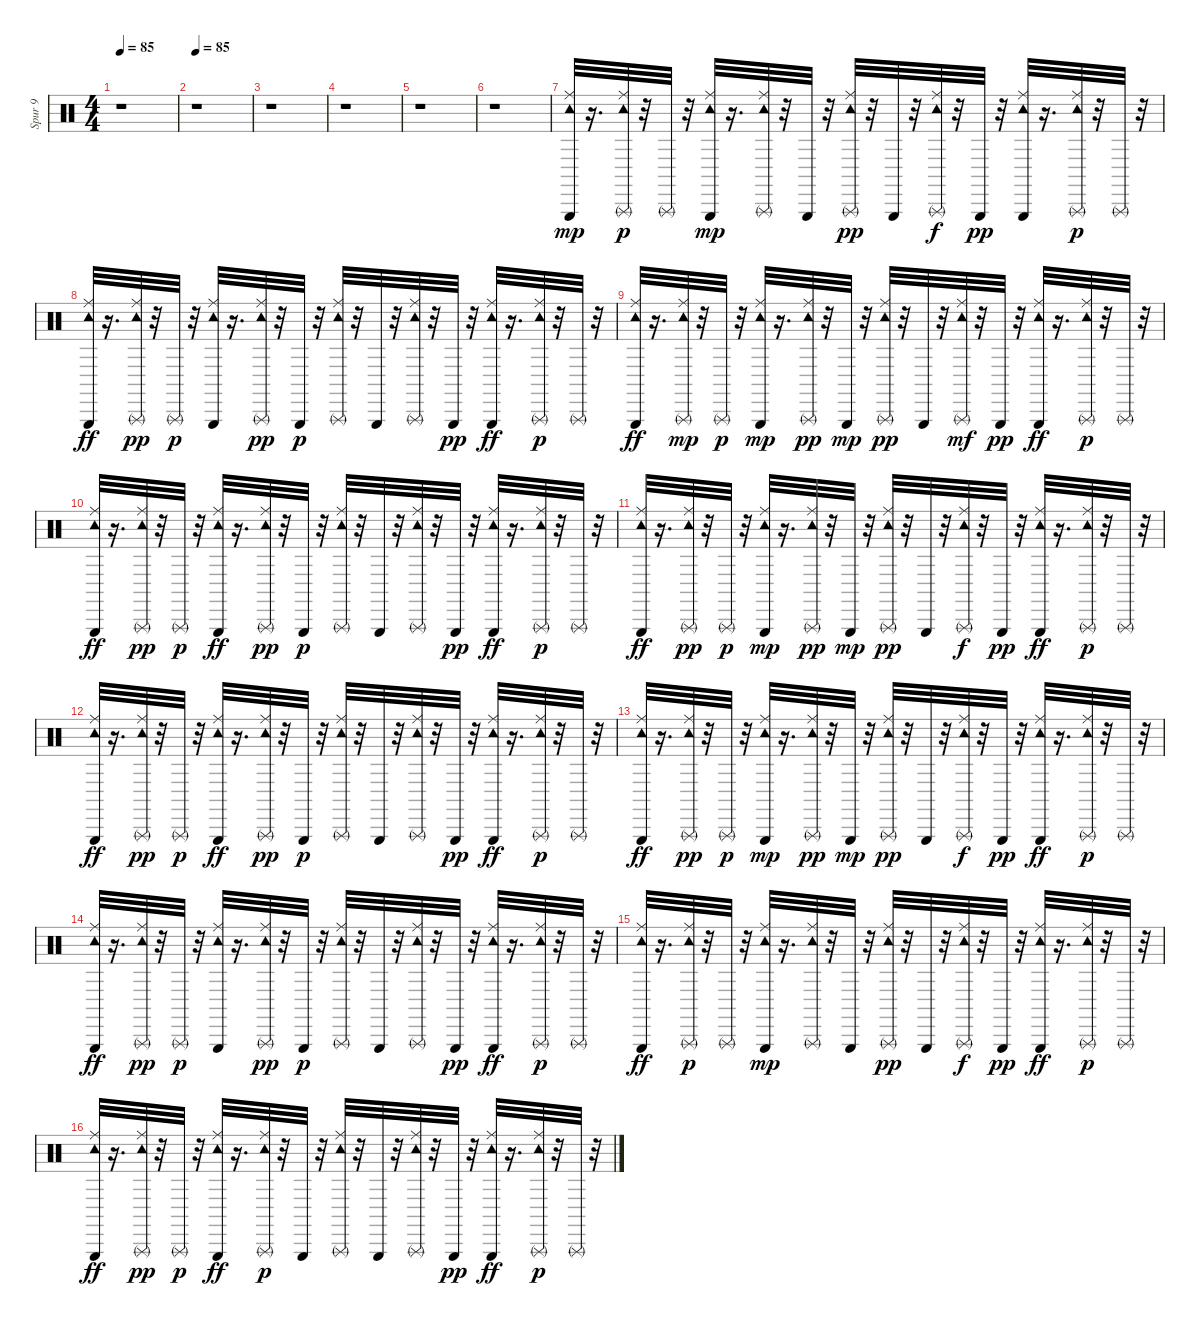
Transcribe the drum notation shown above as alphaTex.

\track ("Spur 9" "Spur 9") {instrument percussion}
\staff {score}
\articulation defaults
\ts (4 4)
\tempo 85
\clef neutral
\ks c
r.1{dy mp} |
\tempo 85
r.1 |
r.1 |
r.1 |
r.1 |
r.1 |
("Tambourine (hit)" "Triangle (hit)" "Ride (middle)").32 r.16{d} ("Ride (middle)" "Tambourine (hit)" "Triangle (rnute)").32{dy p} r.32 "Triangle (rnute)".32 r.32 ("Tambourine (hit)" "Triangle (hit)" "Ride (middle)").32{dy mp} r.16{d} ("Triangle (rnute)" "Ride (middle)" "Tambourine (hit)").32 r.32 "Triangle (hit)".32 r.32 ("Triangle (rnute)" "Ride (middle)" "Tambourine (hit)").32{dy pp} r.32 "Triangle (hit)".32 r.32 ("Ride (middle)" "Tambourine (hit)" "Triangle (rnute)").32{dy f} r.32 "Triangle (hit)".32{dy pp} r.32 ("Tambourine (hit)" "Ride (middle)" "Triangle (hit)").32 r.16{d} ("Tambourine (hit)" "Triangle (rnute)" "Ride (middle)").32{dy p} r.32 "Triangle (rnute)".32 r.32 |
("Ride (middle)" "Triangle (hit)" "Tambourine (hit)").32{dy ff} r.16{d} ("Triangle (rnute)" "Tambourine (hit)" "Ride (middle)").32{dy pp} r.32 "Triangle (rnute)".32{dy p} r.32 ("Ride (middle)" "Tambourine (hit)" "Triangle (hit)").32 r.16{d} ("Triangle (rnute)" "Tambourine (hit)" "Ride (middle)").32{dy pp} r.32 "Triangle (hit)".32{dy p} r.32 ("Triangle (rnute)" "Ride (middle)" "Tambourine (hit)").32 r.32 "Triangle (hit)".32 r.32 ("Ride (middle)" "Tambourine (hit)" "Triangle (rnute)").32 r.32 "Triangle (hit)".32{dy pp} r.32 ("Ride (middle)" "Triangle (hit)" "Tambourine (hit)").32{dy ff} r.16{d} ("Tambourine (hit)" "Triangle (rnute)" "Ride (middle)").32{dy p} r.32 "Triangle (rnute)".32 r.32 |
("Triangle (hit)" "Tambourine (hit)" "Ride (middle)").32{dy ff} r.16{d} ("Ride (middle)" "Triangle (rnute)" "Tambourine (hit)").32{dy mp} r.32 "Triangle (rnute)".32{dy p} r.32 ("Tambourine (hit)" "Triangle (hit)" "Ride (middle)").32{dy mp} r.16{d} ("Ride (middle)" "Tambourine (hit)" "Triangle (rnute)").32{dy pp} r.32 "Triangle (hit)".32{dy mp} r.32 ("Ride (middle)" "Tambourine (hit)" "Triangle (rnute)").32{dy pp} r.32 "Triangle (hit)".32 r.32 ("Triangle (rnute)" "Ride (middle)" "Tambourine (hit)").32{dy mf} r.32 "Triangle (hit)".32{dy pp} r.32 ("Triangle (hit)" "Ride (middle)" "Tambourine (hit)").32{dy ff} r.16{d} ("Tambourine (hit)" "Triangle (rnute)" "Ride (middle)").32{dy p} r.32 "Triangle (rnute)".32 r.32 |
("Ride (middle)" "Triangle (hit)" "Tambourine (hit)").32{dy ff} r.16{d} ("Triangle (rnute)" "Tambourine (hit)" "Ride (middle)").32{dy pp} r.32 "Triangle (rnute)".32{dy p} r.32 ("Triangle (hit)" "Tambourine (hit)" "Ride (middle)").32{dy ff} r.16{d} ("Triangle (rnute)" "Tambourine (hit)" "Ride (middle)").32{dy pp} r.32 "Triangle (hit)".32{dy p} r.32 ("Triangle (rnute)" "Ride (middle)" "Tambourine (hit)").32 r.32 "Triangle (hit)".32 r.32 ("Ride (middle)" "Tambourine (hit)" "Triangle (rnute)").32 r.32 "Triangle (hit)".32{dy pp} r.32 ("Ride (middle)" "Triangle (hit)" "Tambourine (hit)").32{dy ff} r.16{d} ("Tambourine (hit)" "Triangle (rnute)" "Ride (middle)").32{dy p} r.32 "Triangle (rnute)".32 r.32 |
("Ride (middle)" "Triangle (hit)" "Tambourine (hit)").32{dy ff} r.16{d} ("Triangle (rnute)" "Tambourine (hit)" "Ride (middle)").32{dy pp} r.32 "Triangle (rnute)".32{dy p} r.32 ("Tambourine (hit)" "Ride (middle)" "Triangle (hit)").32{dy mp} r.16{d} ("Triangle (rnute)" "Tambourine (hit)" "Ride (middle)").32{dy pp} r.32 "Triangle (hit)".32{dy mp} r.32 ("Triangle (rnute)" "Ride (middle)" "Tambourine (hit)").32{dy pp} r.32 "Triangle (hit)".32 r.32 ("Tambourine (hit)" "Ride (middle)" "Triangle (rnute)").32{dy f} r.32 "Triangle (hit)".32{dy pp} r.32 ("Ride (middle)" "Triangle (hit)" "Tambourine (hit)").32{dy ff} r.16{d} ("Tambourine (hit)" "Triangle (rnute)" "Ride (middle)").32{dy p} r.32 "Triangle (rnute)".32 r.32 |
("Ride (middle)" "Triangle (hit)" "Tambourine (hit)").32{dy ff} r.16{d} ("Tambourine (hit)" "Triangle (rnute)" "Ride (middle)").32{dy pp} r.32 "Triangle (rnute)".32{dy p} r.32 ("Triangle (hit)" "Tambourine (hit)" "Ride (middle)").32{dy ff} r.16{d} ("Triangle (rnute)" "Tambourine (hit)" "Ride (middle)").32{dy pp} r.32 "Triangle (hit)".32{dy p} r.32 ("Triangle (rnute)" "Ride (middle)" "Tambourine (hit)").32 r.32 "Triangle (hit)".32 r.32 ("Ride (middle)" "Tambourine (hit)" "Triangle (rnute)").32 r.32 "Triangle (hit)".32{dy pp} r.32 ("Triangle (hit)" "Ride (middle)" "Tambourine (hit)").32{dy ff} r.16{d} ("Tambourine (hit)" "Triangle (rnute)" "Ride (middle)").32{dy p} r.32 "Triangle (rnute)".32 r.32 |
("Ride (middle)" "Triangle (hit)" "Tambourine (hit)").32{dy ff} r.16{d} ("Triangle (rnute)" "Tambourine (hit)" "Ride (middle)").32{dy pp} r.32 "Triangle (rnute)".32{dy p} r.32 ("Tambourine (hit)" "Ride (middle)" "Triangle (hit)").32{dy mp} r.16{d} ("Triangle (rnute)" "Tambourine (hit)" "Ride (middle)").32{dy pp} r.32 "Triangle (hit)".32{dy mp} r.32 ("Triangle (rnute)" "Ride (middle)" "Tambourine (hit)").32{dy pp} r.32 "Triangle (hit)".32 r.32 ("Tambourine (hit)" "Ride (middle)" "Triangle (rnute)").32{dy f} r.32 "Triangle (hit)".32{dy pp} r.32 ("Ride (middle)" "Triangle (hit)" "Tambourine (hit)").32{dy ff} r.16{d} ("Tambourine (hit)" "Triangle (rnute)" "Ride (middle)").32{dy p} r.32 "Triangle (rnute)".32 r.32 |
("Ride (middle)" "Triangle (hit)" "Tambourine (hit)").32{dy ff} r.16{d} ("Triangle (rnute)" "Tambourine (hit)" "Ride (middle)").32{dy pp} r.32 "Triangle (rnute)".32{dy p} r.32 ("Tambourine (hit)" "Ride (middle)" "Triangle (hit)").32 r.16{d} ("Triangle (rnute)" "Tambourine (hit)" "Ride (middle)").32{dy pp} r.32 "Triangle (hit)".32{dy p} r.32 ("Triangle (rnute)" "Ride (middle)" "Tambourine (hit)").32 r.32 "Triangle (hit)".32 r.32 ("Ride (middle)" "Tambourine (hit)" "Triangle (rnute)").32 r.32 "Triangle (hit)".32{dy pp} r.32 ("Ride (middle)" "Triangle (hit)" "Tambourine (hit)").32{dy ff} r.16{d} ("Tambourine (hit)" "Triangle (rnute)" "Ride (middle)").32{dy p} r.32 "Triangle (rnute)".32 r.32 |
("Ride (middle)" "Triangle (hit)" "Tambourine (hit)").32{dy ff} r.16{d} ("Tambourine (hit)" "Ride (middle)" "Triangle (rnute)").32{dy p} r.32 "Triangle (rnute)".32 r.32 ("Tambourine (hit)" "Triangle (hit)" "Ride (middle)").32{dy mp} r.16{d} ("Triangle (rnute)" "Ride (middle)" "Tambourine (hit)").32 r.32 "Triangle (hit)".32 r.32 ("Ride (middle)" "Tambourine (hit)" "Triangle (rnute)").32{dy pp} r.32 "Triangle (hit)".32 r.32 ("Ride (middle)" "Tambourine (hit)" "Triangle (rnute)").32{dy f} r.32 "Triangle (hit)".32{dy pp} r.32 ("Ride (middle)" "Triangle (hit)" "Tambourine (hit)").32{dy ff} r.16{d} ("Tambourine (hit)" "Triangle (rnute)" "Ride (middle)").32{dy p} r.32 "Triangle (rnute)".32 r.32 |
("Ride (middle)" "Triangle (hit)" "Tambourine (hit)").32{dy ff} r.16{d} ("Triangle (rnute)" "Tambourine (hit)" "Ride (middle)").32{dy pp} r.32 "Triangle (rnute)".32{dy p} r.32 ("Triangle (hit)" "Ride (middle)" "Tambourine (hit)").32{dy ff} r.16{d} ("Ride (middle)" "Tambourine (hit)" "Triangle (rnute)").32{dy p} r.32 "Triangle (hit)".32 r.32 ("Ride (middle)" "Tambourine (hit)" "Triangle (rnute)").32 r.32 "Triangle (hit)".32 r.32 ("Ride (middle)" "Tambourine (hit)" "Triangle (rnute)").32 r.32 "Triangle (hit)".32{dy pp} r.32 ("Ride (middle)" "Triangle (hit)" "Tambourine (hit)").32{dy ff} r.16{d} ("Tambourine (hit)" "Triangle (rnute)" "Ride (middle)").32{dy p} r.32 "Triangle (rnute)".32 r.32
